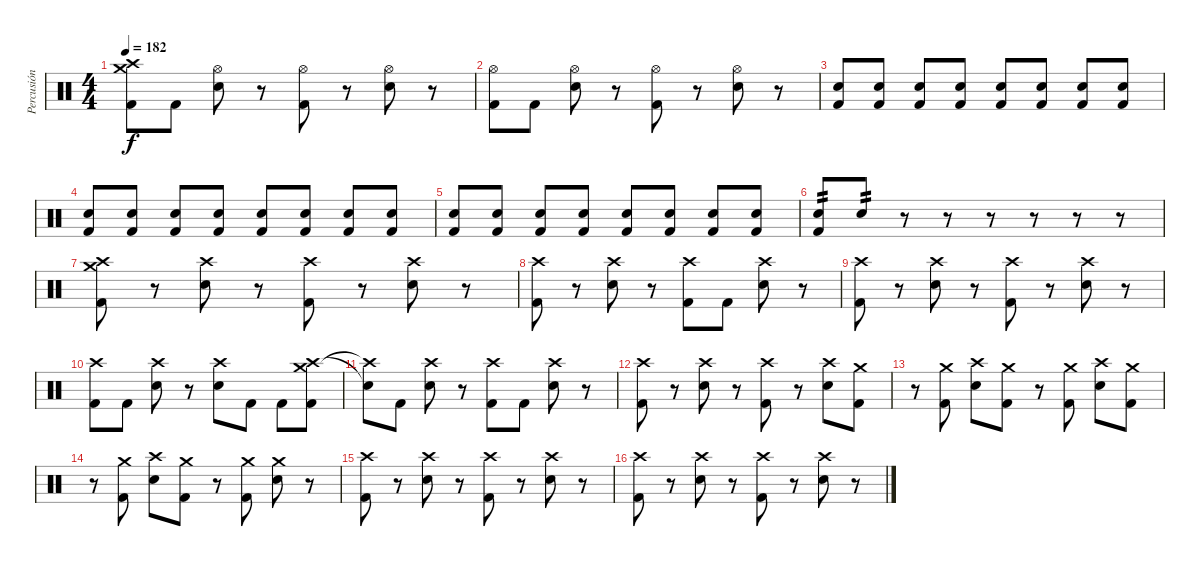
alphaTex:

\track ("Percusión Kuliá" "Percusión ") {instrument percussion}
\staff {score}
\articulation defaults
\ts (4 4)
\tempo 182
\clef neutral
\ks c
("Crash high (hit)" "Crash medium (hit)" "Kick (hit) 2").8{dy f} "Kick (hit) 2".8 ("Hi-Hat (open)" "Electric Snare (hit)").8 r.8 ("Hi-Hat (open)" "Kick (hit) 2").8 r.8 ("Hi-Hat (open)" "Electric Snare (hit)").8 r.8 |
("Hi-Hat (open)" "Kick (hit) 2").8 "Kick (hit) 2".8 ("Hi-Hat (open)" "Electric Snare (hit)").8 r.8 ("Hi-Hat (open)" "Kick (hit) 2").8 r.8 ("Hi-Hat (open)" "Electric Snare (hit)").8 r.8{volume 8} |
("Electric Snare (hit)" "Kick (hit) 2").8{volume 15} ("Electric Snare (hit)" "Kick (hit) 2").8 ("Electric Snare (hit)" "Kick (hit) 2").8 ("Electric Snare (hit)" "Kick (hit) 2").8 ("Electric Snare (hit)" "Kick (hit) 2").8 ("Electric Snare (hit)" "Kick (hit) 2").8 ("Electric Snare (hit)" "Kick (hit) 2").8 ("Electric Snare (hit)" "Kick (hit) 2").8 |
("Electric Snare (hit)" "Kick (hit) 2").8 ("Electric Snare (hit)" "Kick (hit) 2").8 ("Electric Snare (hit)" "Kick (hit) 2").8 ("Electric Snare (hit)" "Kick (hit) 2").8 ("Electric Snare (hit)" "Kick (hit) 2").8 ("Electric Snare (hit)" "Kick (hit) 2").8 ("Electric Snare (hit)" "Kick (hit) 2").8 ("Electric Snare (hit)" "Kick (hit) 2").8 |
("Electric Snare (hit)" "Kick (hit) 2").8 ("Electric Snare (hit)" "Kick (hit) 2").8 ("Electric Snare (hit)" "Kick (hit) 2").8 ("Electric Snare (hit)" "Kick (hit) 2").8 ("Electric Snare (hit)" "Kick (hit) 2").8 ("Electric Snare (hit)" "Kick (hit) 2").8 ("Electric Snare (hit)" "Kick (hit) 2").8 ("Electric Snare (hit)" "Kick (hit) 2").8 |
("Electric Snare (hit)" "Kick (hit) 2").8{tp 2} "Electric Snare (hit)".8{tp 2} r.8 r.8 r.8 r.8 r.8 r.8 |
("Crash medium (hit)" "Crash high (hit)" "Kick (hit) 2").8 r.8 ("Crash high (hit)" "Electric Snare (hit)").8 r.8 ("Crash high (hit)" "Kick (hit) 2").8 r.8 ("Crash high (hit)" "Electric Snare (hit)").8 r.8 |
("Crash high (hit)" "Kick (hit) 2").8 r.8 ("Crash high (hit)" "Electric Snare (hit)").8 r.8 ("Crash high (hit)" "Kick (hit) 2").8 "Kick (hit) 2".8 ("Crash high (hit)" "Electric Snare (hit)").8 r.8 |
("Crash high (hit)" "Kick (hit) 2").8 r.8 ("Crash high (hit)" "Electric Snare (hit)").8 r.8 ("Crash high (hit)" "Kick (hit) 2").8 r.8 ("Crash high (hit)" "Electric Snare (hit)").8 r.8 |
("Crash high (hit)" "Kick (hit) 2").8 "Kick (hit) 2".8 ("Crash high (hit)" "Electric Snare (hit)").8 r.8 ("Crash high (hit)" "Electric Snare (hit)").8 "Kick (hit) 2".8 "Kick (hit) 2".8 ("Crash high (hit)" "Crash medium (hit)" "Kick (hit) 2").8 |
("Snare (hit)"{t} "Crash high (hit)"{t}).8 "Kick (hit) 2".8 ("Crash high (hit)" "Electric Snare (hit)").8 r.8 ("Crash high (hit)" "Kick (hit) 2").8 "Kick (hit) 2".8 ("Crash high (hit)" "Electric Snare (hit)").8 r.8 |
("Crash high (hit)" "Kick (hit) 2").8 r.8 ("Crash high (hit)" "Electric Snare (hit)").8 r.8 ("Crash high (hit)" "Kick (hit) 2").8 r.8 ("Crash high (hit)" "Electric Snare (hit)").8 ("Crash medium (hit)" "Kick (hit) 2").8 |
r.8 ("Crash medium (hit)" "Kick (hit) 2").8 ("Crash high (hit)" "Electric Snare (hit)").8 ("Crash medium (hit)" "Kick (hit) 2").8 r.8 ("Crash medium (hit)" "Kick (hit) 2").8 ("Crash high (hit)" "Electric Snare (hit)").8 ("Crash medium (hit)" "Kick (hit) 2").8 |
r.8 ("Crash medium (hit)" "Kick (hit) 2").8 ("Crash high (hit)" "Electric Snare (hit)").8 ("Crash medium (hit)" "Kick (hit) 2").8 r.8 ("Crash medium (hit)" "Kick (hit) 2").8 ("Crash medium (hit)" "Electric Snare (hit)").8 r.8 |
("Crash high (hit)" "Kick (hit) 2").8 r.8 ("Crash high (hit)" "Electric Snare (hit)").8 r.8 ("Crash high (hit)" "Kick (hit) 2").8 r.8 ("Crash high (hit)" "Electric Snare (hit)").8 r.8 |
("Crash high (hit)" "Kick (hit) 2").8 r.8 ("Crash high (hit)" "Electric Snare (hit)").8 r.8 ("Crash high (hit)" "Kick (hit) 2").8 r.8 ("Crash high (hit)" "Electric Snare (hit)").8 r.8
